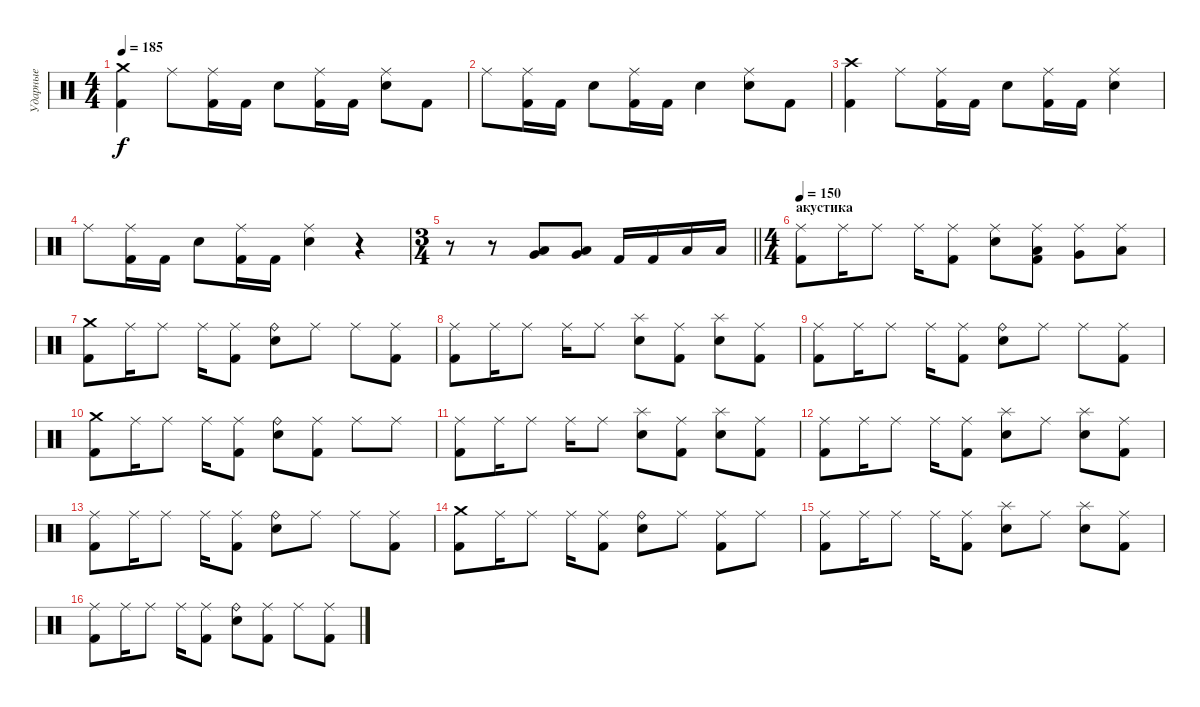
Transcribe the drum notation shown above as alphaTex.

\track ("Ударные" "Ударные") {instrument percussion}
\staff {score}
\articulation defaults
\ts (4 4)
\tempo 185
\clef neutral
\ks c
("Crash medium (hit)" "Kick (hit) 2").4{dy f} "Ride (middle)".8 ("Ride (middle)" "Kick (hit) 2").16 "Kick (hit) 2".16 "Electric Snare (hit)".8 ("Ride (middle)" "Kick (hit) 2").16 "Kick (hit) 2".16 ("Ride (middle)" "Electric Snare (hit)").8 "Kick (hit) 2".8 |
"Ride (middle)".8 ("Ride (middle)" "Kick (hit) 2").16 "Kick (hit) 2".16 "Electric Snare (hit)".8 ("Ride (middle)" "Kick (hit) 2").16 "Kick (hit) 2".16 "Electric Snare (hit)".4 ("Ride (middle)" "Electric Snare (hit)").8 "Kick (hit) 2".8 |
("Crash high (hit)" "Kick (hit) 2").4 "Ride (middle)".8 ("Ride (middle)" "Kick (hit) 2").16 "Kick (hit) 2".16 "Electric Snare (hit)".8 ("Ride (middle)" "Kick (hit) 2").16 "Kick (hit) 2".16 ("Ride (middle)" "Electric Snare (hit)").4 |
"Ride (middle)".8 ("Ride (middle)" "Kick (hit) 2").16 "Kick (hit) 2".16 "Electric Snare (hit)".8 ("Ride (middle)" "Kick (hit) 2").16 "Kick (hit) 2".16 ("Ride (middle)" "Electric Snare (hit)").4 r.4 |
\ts (3 4)
\barLineRight lightlight
r.8 r.8 ("Very Low Tom (hit)" "Low Tom (hit)").8 ("Very Low Tom (hit)" "Low Tom (hit)").8 "Kick (hit) 2".16 "Kick (hit) 2".16 "Low Tom (hit)".16 "Low Tom (hit)".16 |
\ts (4 4)
\section ("" "акустика")
\tempo 150
("Ride (middle)" "Kick (hit) 2").8 "Ride (middle)".16 "Ride (middle)".8 "Ride (middle)".16 ("Ride (middle)" "Kick (hit) 2").8 ("Ride (middle)" "Electric Snare (hit)").8 ("Ride (middle)" "Low Tom (hit)" "Kick (hit) 2").8 ("Ride (middle)" "Very Low Tom (hit)").8 ("Ride (middle)" "Low Floor Tom (hit)").8 |
("Crash medium (hit)" "Kick (hit) 2").8 "Ride (middle)".16 "Ride (middle)".8 "Ride (middle)".16 ("Ride (middle)" "Kick (hit) 2").8 ("Ride (bell)" "Electric Snare (hit)").8 "Ride (middle)".8 "Ride (middle)".8 ("Ride (middle)" "Kick (hit) 2").8 |
("Ride (middle)" "Kick (hit) 2").8 "Ride (middle)".16 "Ride (middle)".8 "Ride (middle)".16 "Ride (middle)".8 ("Splash (hit)" "Electric Snare (hit)").8 ("Ride (middle)" "Kick (hit) 2").8 ("Splash (hit)" "Electric Snare (hit)").8 ("Ride (middle)" "Kick (hit) 2").8 |
("Ride (middle)" "Kick (hit) 2").8 "Ride (middle)".16 "Ride (middle)".8 "Ride (middle)".16 ("Ride (middle)" "Kick (hit) 2").8 ("Ride (bell)" "Electric Snare (hit)").8 "Ride (middle)".8 "Ride (middle)".8 ("Ride (middle)" "Kick (hit) 2").8 |
("Crash medium (hit)" "Kick (hit) 2").8 "Ride (middle)".16 "Ride (middle)".8 "Ride (middle)".16 ("Ride (middle)" "Kick (hit) 2").8 ("Ride (bell)" "Electric Snare (hit)").8 ("Ride (middle)" "Kick (hit) 2").8 "Ride (middle)".8 "Ride (middle)".8 |
("Ride (middle)" "Kick (hit) 2").8 "Ride (middle)".16 "Ride (middle)".8 "Ride (middle)".16 "Ride (middle)".8 ("Splash (hit)" "Electric Snare (hit)").8 ("Ride (middle)" "Kick (hit) 2").8 ("Splash (hit)" "Electric Snare (hit)").8 ("Ride (middle)" "Kick (hit) 2").8 |
("Ride (middle)" "Kick (hit) 2").8 "Ride (middle)".16 "Ride (middle)".8 "Ride (middle)".16 ("Ride (middle)" "Kick (hit) 2").8 ("Splash (hit)" "Electric Snare (hit)").8 "Ride (middle)".8 ("Splash (hit)" "Electric Snare (hit)").8 ("Ride (middle)" "Kick (hit) 2").8 |
("Ride (middle)" "Kick (hit) 2").8 "Ride (middle)".16 "Ride (middle)".8 "Ride (middle)".16 ("Ride (middle)" "Kick (hit) 2").8 ("Ride (bell)" "Electric Snare (hit)").8 "Ride (middle)".8 "Ride (middle)".8 ("Ride (middle)" "Kick (hit) 2").8 |
("Crash medium (hit)" "Kick (hit) 2").8 "Ride (middle)".16 "Ride (middle)".8 "Ride (middle)".16 ("Ride (middle)" "Kick (hit) 2").8 ("Ride (bell)" "Electric Snare (hit)").8 "Ride (middle)".8 ("Ride (middle)" "Kick (hit) 2").8 "Ride (middle)".8 |
("Ride (middle)" "Kick (hit) 2").8 "Ride (middle)".16 "Ride (middle)".8 "Ride (middle)".16 ("Ride (middle)" "Kick (hit) 2").8 ("Splash (hit)" "Electric Snare (hit)").8 "Ride (middle)".8 ("Splash (hit)" "Electric Snare (hit)").8 ("Ride (middle)" "Kick (hit) 2").8 |
("Ride (middle)" "Kick (hit) 2").8 "Ride (middle)".16 "Ride (middle)".8 "Ride (middle)".16 ("Ride (middle)" "Kick (hit) 2").8 ("Ride (bell)" "Electric Snare (hit)").8 ("Ride (middle)" "Kick (hit) 2").8 "Ride (middle)".8 ("Ride (middle)" "Kick (hit) 2").8
